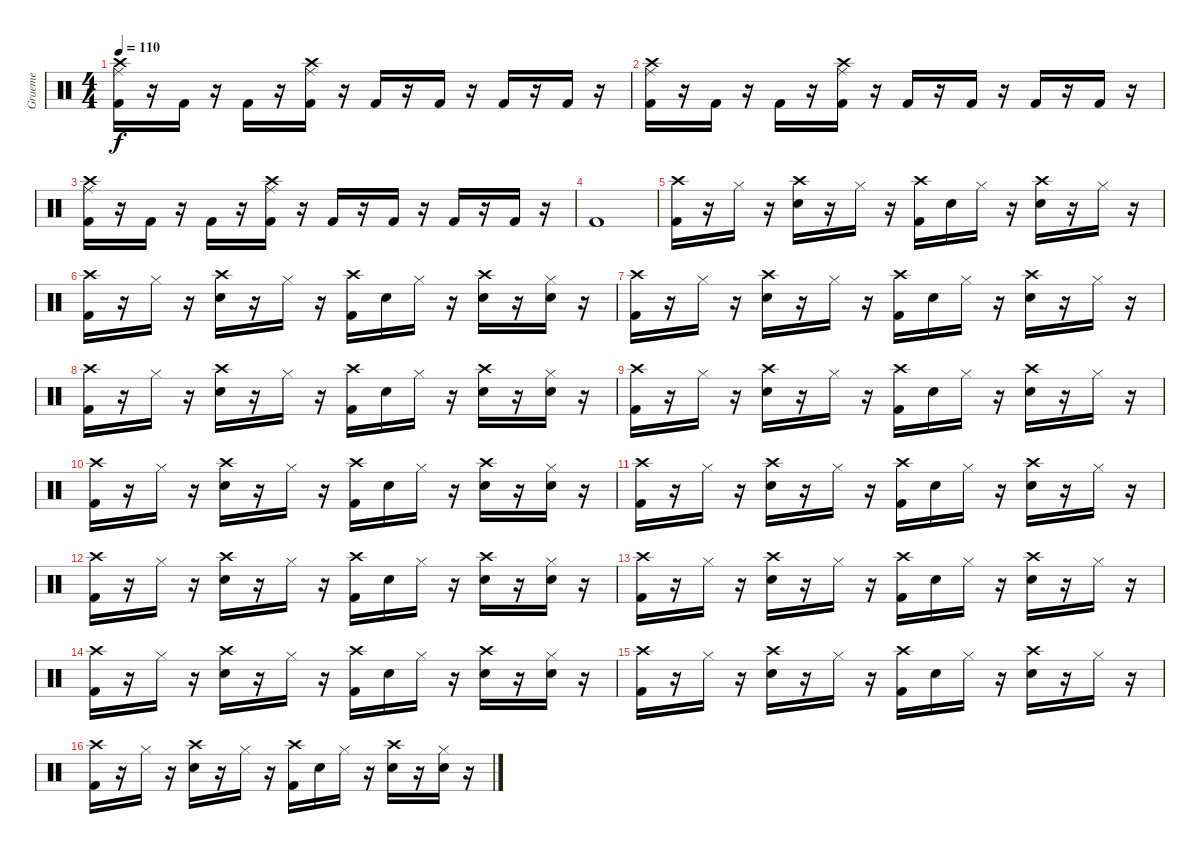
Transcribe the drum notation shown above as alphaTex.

\track ("Graeme" "Graeme") {instrument percussion}
\staff {score}
\articulation defaults
\ts (4 4)
\tempo 110
\clef neutral
\ks c
("Ride (middle)" "Crash high (hit)" "Kick (hit) 2").16{dy f} r.16 "Kick (hit) 2".16 r.16 "Kick (hit) 2".16 r.16 ("Ride (middle)" "Crash high (hit)" "Kick (hit) 2").16 r.16 "Kick (hit) 2".16 r.16 "Kick (hit) 2".16 r.16 "Kick (hit) 2".16 r.16 "Kick (hit) 2".16 r.16 |
("Ride (middle)" "Crash high (hit)" "Kick (hit) 2").16 r.16 "Kick (hit) 2".16 r.16 "Kick (hit) 2".16 r.16 ("Ride (middle)" "Crash high (hit)" "Kick (hit) 2").16 r.16 "Kick (hit) 2".16 r.16 "Kick (hit) 2".16 r.16 "Kick (hit) 2".16 r.16 "Kick (hit) 2".16 r.16 |
("Ride (middle)" "Crash high (hit)" "Kick (hit) 2").16 r.16 "Kick (hit) 2".16 r.16 "Kick (hit) 2".16 r.16 ("Ride (middle)" "Crash high (hit)" "Kick (hit) 2").16 r.16 "Kick (hit) 2".16 r.16 "Kick (hit) 2".16 r.16 "Kick (hit) 2".16 r.16 "Kick (hit) 2".16 r.16 |
"Kick (hit) 2".1 |
("Crash high (hit)" "Kick (hit) 2").16 r.16 "Hi-Hat (closed)".16 r.16 ("Snare (hit) 2" "Crash high (hit)").16 r.16 "Hi-Hat (closed)".16 r.16 ("Crash high (hit)" "Kick (hit) 2").16 "Snare (hit) 2".16 "Hi-Hat (closed)".16 r.16 ("Snare (hit) 2" "Crash high (hit)").16 r.16 "Hi-Hat (closed)".16 r.16 |
("Crash high (hit)" "Kick (hit) 2").16 r.16 "Hi-Hat (closed)".16 r.16 ("Snare (hit) 2" "Crash high (hit)").16 r.16 "Hi-Hat (closed)".16 r.16 ("Crash high (hit)" "Kick (hit) 2").16 "Snare (hit) 2".16 "Hi-Hat (closed)".16 r.16 ("Snare (hit) 2" "Crash high (hit)").16 r.16 ("Snare (hit) 2" "Hi-Hat (closed)").16 r.16 |
("Crash high (hit)" "Kick (hit) 2").16 r.16 "Hi-Hat (closed)".16 r.16 ("Snare (hit) 2" "Crash high (hit)").16 r.16 "Hi-Hat (closed)".16 r.16 ("Crash high (hit)" "Kick (hit) 2").16 "Snare (hit) 2".16 "Hi-Hat (closed)".16 r.16 ("Snare (hit) 2" "Crash high (hit)").16 r.16 "Hi-Hat (closed)".16 r.16 |
("Crash high (hit)" "Kick (hit) 2").16 r.16 "Hi-Hat (closed)".16 r.16 ("Snare (hit) 2" "Crash high (hit)").16 r.16 "Hi-Hat (closed)".16 r.16 ("Crash high (hit)" "Kick (hit) 2").16 "Snare (hit) 2".16 "Hi-Hat (closed)".16 r.16 ("Snare (hit) 2" "Crash high (hit)").16 r.16 ("Snare (hit) 2" "Hi-Hat (closed)").16 r.16 |
("Crash high (hit)" "Kick (hit) 2").16 r.16 "Hi-Hat (closed)".16 r.16 ("Snare (hit) 2" "Crash high (hit)").16 r.16 "Hi-Hat (closed)".16 r.16 ("Crash high (hit)" "Kick (hit) 2").16 "Snare (hit) 2".16 "Hi-Hat (closed)".16 r.16 ("Snare (hit) 2" "Crash high (hit)").16 r.16 "Hi-Hat (closed)".16 r.16 |
("Crash high (hit)" "Kick (hit) 2").16 r.16 "Hi-Hat (closed)".16 r.16 ("Snare (hit) 2" "Crash high (hit)").16 r.16 "Hi-Hat (closed)".16 r.16 ("Crash high (hit)" "Kick (hit) 2").16 "Snare (hit) 2".16 "Hi-Hat (closed)".16 r.16 ("Snare (hit) 2" "Crash high (hit)").16 r.16 ("Snare (hit) 2" "Hi-Hat (closed)").16 r.16 |
("Crash high (hit)" "Kick (hit) 2").16 r.16 "Hi-Hat (closed)".16 r.16 ("Snare (hit) 2" "Crash high (hit)").16 r.16 "Hi-Hat (closed)".16 r.16 ("Crash high (hit)" "Kick (hit) 2").16 "Snare (hit) 2".16 "Hi-Hat (closed)".16 r.16 ("Snare (hit) 2" "Crash high (hit)").16 r.16 "Hi-Hat (closed)".16 r.16 |
("Crash high (hit)" "Kick (hit) 2").16 r.16 "Hi-Hat (closed)".16 r.16 ("Snare (hit) 2" "Crash high (hit)").16 r.16 "Hi-Hat (closed)".16 r.16 ("Crash high (hit)" "Kick (hit) 2").16 "Snare (hit) 2".16 "Hi-Hat (closed)".16 r.16 ("Snare (hit) 2" "Crash high (hit)").16 r.16 ("Snare (hit) 2" "Hi-Hat (closed)").16 r.16 |
("Crash high (hit)" "Kick (hit) 2").16 r.16 "Hi-Hat (closed)".16 r.16 ("Snare (hit) 2" "Crash high (hit)").16 r.16 "Hi-Hat (closed)".16 r.16 ("Crash high (hit)" "Kick (hit) 2").16 "Snare (hit) 2".16 "Hi-Hat (closed)".16 r.16 ("Snare (hit) 2" "Crash high (hit)").16 r.16 "Hi-Hat (closed)".16 r.16 |
("Crash high (hit)" "Kick (hit) 2").16 r.16 "Hi-Hat (closed)".16 r.16 ("Snare (hit) 2" "Crash high (hit)").16 r.16 "Hi-Hat (closed)".16 r.16 ("Crash high (hit)" "Kick (hit) 2").16 "Snare (hit) 2".16 "Hi-Hat (closed)".16 r.16 ("Snare (hit) 2" "Crash high (hit)").16 r.16 ("Snare (hit) 2" "Hi-Hat (closed)").16 r.16 |
("Crash high (hit)" "Kick (hit) 2").16 r.16 "Hi-Hat (closed)".16 r.16 ("Snare (hit) 2" "Crash high (hit)").16 r.16 "Hi-Hat (closed)".16 r.16 ("Crash high (hit)" "Kick (hit) 2").16 "Snare (hit) 2".16 "Hi-Hat (closed)".16 r.16 ("Snare (hit) 2" "Crash high (hit)").16 r.16 "Hi-Hat (closed)".16 r.16 |
("Crash high (hit)" "Kick (hit) 2").16 r.16 "Hi-Hat (closed)".16 r.16 ("Snare (hit) 2" "Crash high (hit)").16 r.16 "Hi-Hat (closed)".16 r.16 ("Crash high (hit)" "Kick (hit) 2").16 "Snare (hit) 2".16 "Hi-Hat (closed)".16 r.16 ("Snare (hit) 2" "Crash high (hit)").16 r.16 ("Snare (hit) 2" "Hi-Hat (closed)").16 r.16
